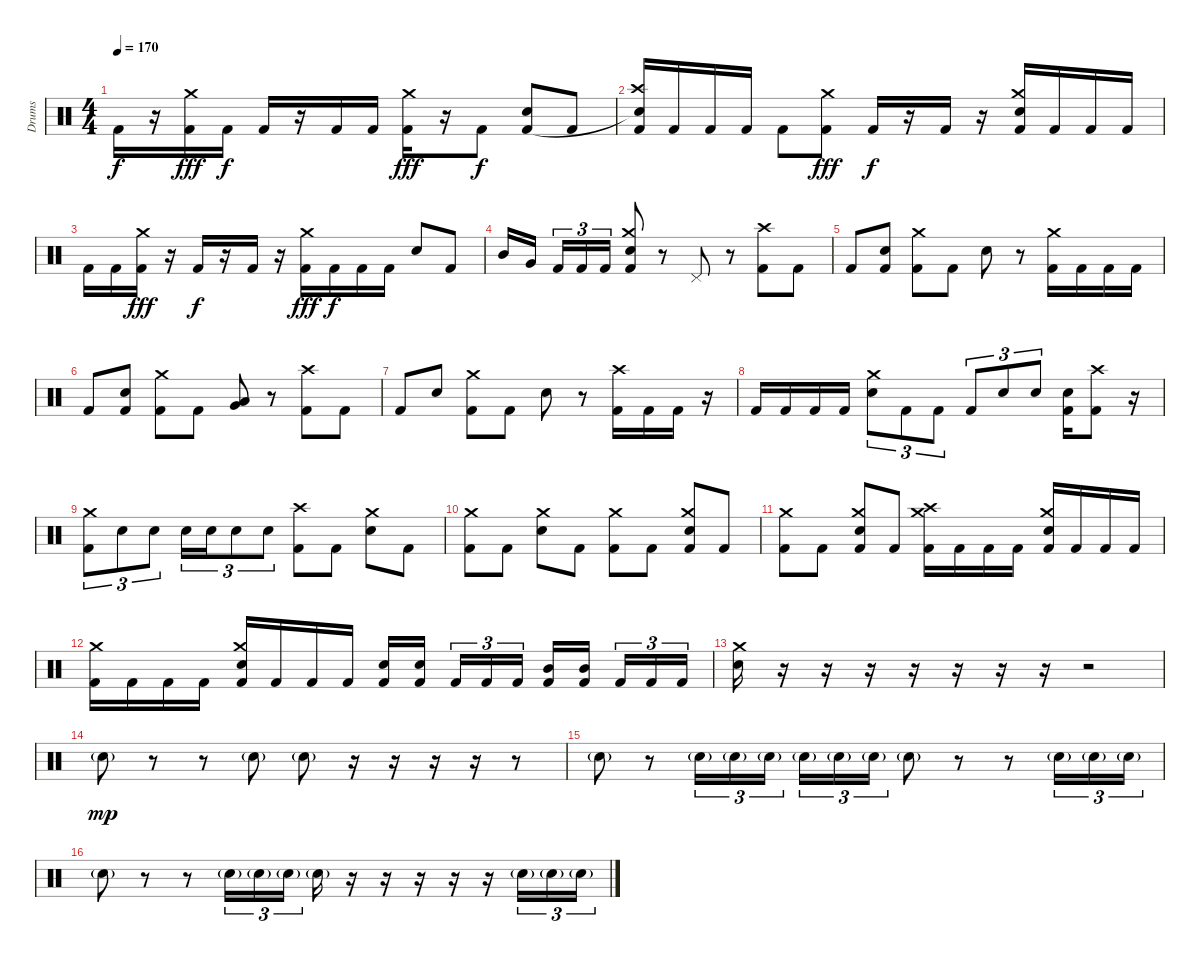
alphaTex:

\track ("Drums" "Drums") {instrument percussion}
\staff {score}
\articulation defaults
\ts (4 4)
\tempo 170
\clef neutral
\ks c "Kick (hit) 2".16{dy f}
r.16 ("Crash medium (hit)" "Kick (hit) 2").16{dy fff} "Kick (hit) 2".16{dy f} "Kick (hit) 2".16 r.16 "Kick (hit) 2".16 "Kick (hit) 2".16 ("Crash medium (hit)" "Kick (hit) 2").16{dy fff} r.16 "Kick (hit) 2".8{dy f} ("Electric Snare (hit)" "Kick (hit) 2").8 "Kick (hit) 2".8 |
("Crash high (hit)" "Snare (hit)"{t} "Kick (hit) 2").16 "Kick (hit) 2".16 "Kick (hit) 2".16 "Kick (hit) 2".16 "Kick (hit) 2".8 ("Crash medium (hit)" "Kick (hit) 2").8{dy fff} "Kick (hit) 2".16{dy f} r.16 "Kick (hit) 2".16 r.16 ("Crash medium (hit)" "Electric Snare (hit)" "Kick (hit) 2").16 "Kick (hit) 2".16 "Kick (hit) 2".16 "Kick (hit) 2".16 |
"Kick (hit) 2".16 "Kick (hit) 2".16 ("Crash medium (hit)" "Kick (hit) 2").16{dy fff} r.16 "Kick (hit) 2".16{dy f} r.16 "Kick (hit) 2".16 r.16 ("Crash medium (hit)" "Kick (hit) 2").16{dy fff} "Kick (hit) 2".16{dy f} "Kick (hit) 2".16 "Kick (hit) 2".16 "Electric Snare (hit)".8 "Kick (hit) 2".8 |
"Mid Tom (hit)".16 "Very Low Tom (hit)".16{beam splitsecondary} "Kick (hit) 2".16{tu (3 2)} "Kick (hit) 2".16{tu (3 2)} "Kick (hit) 2".16{tu (3 2)} ("Crash medium (hit)" "Electric Snare (hit)" "Kick (hit) 2").8 r.8 "Pedal Hi-Hat (hit)".8 r.8 ("Crash high (hit)" "Kick (hit) 2").8 "Kick (hit) 2".8 |
"Kick (hit) 2".8 ("Electric Snare (hit)" "Kick (hit) 2").8 ("Crash medium (hit)" "Kick (hit) 2").8 "Kick (hit) 2".8 "Electric Snare (hit)".8 r.8 ("Crash medium (hit)" "Kick (hit) 2").16 "Kick (hit) 2".16 "Kick (hit) 2".16 "Kick (hit) 2".16 |
"Kick (hit) 2".8 ("Electric Snare (hit)" "Kick (hit) 2").8 ("Crash medium (hit)" "Kick (hit) 2").8 "Kick (hit) 2".8 ("Low Tom (hit)" "Very Low Tom (hit)").8 r.8 ("Crash high (hit)" "Kick (hit) 2").8 "Kick (hit) 2".8 |
"Kick (hit) 2".8 "Electric Snare (hit)".8 ("Crash medium (hit)" "Kick (hit) 2").8 "Kick (hit) 2".8 "Electric Snare (hit)".8 r.8 ("Crash high (hit)" "Kick (hit) 2").16 "Kick (hit) 2".16 "Kick (hit) 2".16 r.16 |
"Kick (hit) 2".16 "Kick (hit) 2".16 "Kick (hit) 2".16 "Kick (hit) 2".16 ("Crash medium (hit)" "Electric Snare (hit)").8{tu (3 2)} "Kick (hit) 2".8{tu (3 2)} "Kick (hit) 2".8{tu (3 2)} "Kick (hit) 2".8{tu (3 2)} "Electric Snare (hit)".8{tu (3 2)} "Electric Snare (hit)".8{tu (3 2)} ("Electric Snare (hit)" "Kick (hit) 2").16 ("Crash high (hit)" "Kick (hit) 2").8 r.16 |
("Crash medium (hit)" "Kick (hit) 2").8{tu (3 2)} "Electric Snare (hit)".8{tu (3 2)} "Electric Snare (hit)".8{tu (3 2)} "Electric Snare (hit)".16{tu (3 2)} "Electric Snare (hit)".16{tu (3 2)} "Electric Snare (hit)".8{tu (3 2)} "Electric Snare (hit)".8{tu (3 2)} ("Crash high (hit)" "Kick (hit) 2").8 "Kick (hit) 2".8 ("Crash medium (hit)" "Electric Snare (hit)").8 "Kick (hit) 2".8 |
("Crash medium (hit)" "Kick (hit) 2").8 "Kick (hit) 2".8 ("Crash medium (hit)" "Electric Snare (hit)").8 "Kick (hit) 2".8 ("Crash medium (hit)" "Kick (hit) 2").8 "Kick (hit) 2".8 ("Crash medium (hit)" "Electric Snare (hit)" "Kick (hit) 2").8 "Kick (hit) 2".8 |
("Crash medium (hit)" "Kick (hit) 2").8 "Kick (hit) 2".8 ("Crash medium (hit)" "Electric Snare (hit)" "Kick (hit) 2").8 "Kick (hit) 2".8 ("Crash medium (hit)" "Crash high (hit)" "Kick (hit) 2").16 "Kick (hit) 2".16 "Kick (hit) 2".16 "Kick (hit) 2".16 ("Crash medium (hit)" "Electric Snare (hit)" "Kick (hit) 2").16 "Kick (hit) 2".16 "Kick (hit) 2".16 "Kick (hit) 2".16 |
("Crash medium (hit)" "Kick (hit) 2").16 "Kick (hit) 2".16 "Kick (hit) 2".16 "Kick (hit) 2".16 ("Crash medium (hit)" "Electric Snare (hit)" "Kick (hit) 2").16 "Kick (hit) 2".16 "Kick (hit) 2".16 "Kick (hit) 2".16 ("Electric Snare (hit)" "Kick (hit) 2").16 ("Electric Snare (hit)" "Kick (hit) 2").16{beam splitsecondary} "Kick (hit) 2".16{tu (3 2)} "Kick (hit) 2".16{tu (3 2)} "Kick (hit) 2".16{tu (3 2)} ("Mid Tom (hit)" "Kick (hit) 2").16 ("Mid Tom (hit)" "Kick (hit) 2").16{beam splitsecondary} "Kick (hit) 2".16{tu (3 2)} "Kick (hit) 2".16{tu (3 2)} "Kick (hit) 2".16{tu (3 2)} |
("Crash medium (hit)" "Electric Snare (hit)").16 r.16 r.16 r.16 r.16 r.16 r.16 r.16 r.2 |
"Electric Snare (hit)"{g}.8{dy mp} r.8 r.8 "Electric Snare (hit)"{g}.8 "Electric Snare (hit)"{g}.8 r.16 r.16 r.16 r.16 r.8 |
"Electric Snare (hit)"{g}.8 r.8 "Electric Snare (hit)"{g}.16{tu (3 2)} "Electric Snare (hit)"{g}.16{tu (3 2)} "Electric Snare (hit)"{g}.16{tu (3 2) beam splitsecondary} "Electric Snare (hit)"{g}.16{tu (3 2)} "Electric Snare (hit)"{g}.16{tu (3 2)} "Electric Snare (hit)"{g}.16{tu (3 2)} "Electric Snare (hit)"{g}.8 r.8 r.8 "Electric Snare (hit)"{g}.16{tu (3 2)} "Electric Snare (hit)"{g}.16{tu (3 2)} "Electric Snare (hit)"{g}.16{tu (3 2)} |
"Electric Snare (hit)"{g}.8 r.8 r.8 "Electric Snare (hit)"{g}.16{tu (3 2)} "Electric Snare (hit)"{g}.16{tu (3 2)} "Electric Snare (hit)"{g}.16{tu (3 2)} "Electric Snare (hit)"{g}.16 r.16 r.16 r.16 r.16 r.16 "Electric Snare (hit)"{g}.16{tu (3 2)} "Electric Snare (hit)"{g}.16{tu (3 2)} "Electric Snare (hit)"{g}.16{tu (3 2)}
